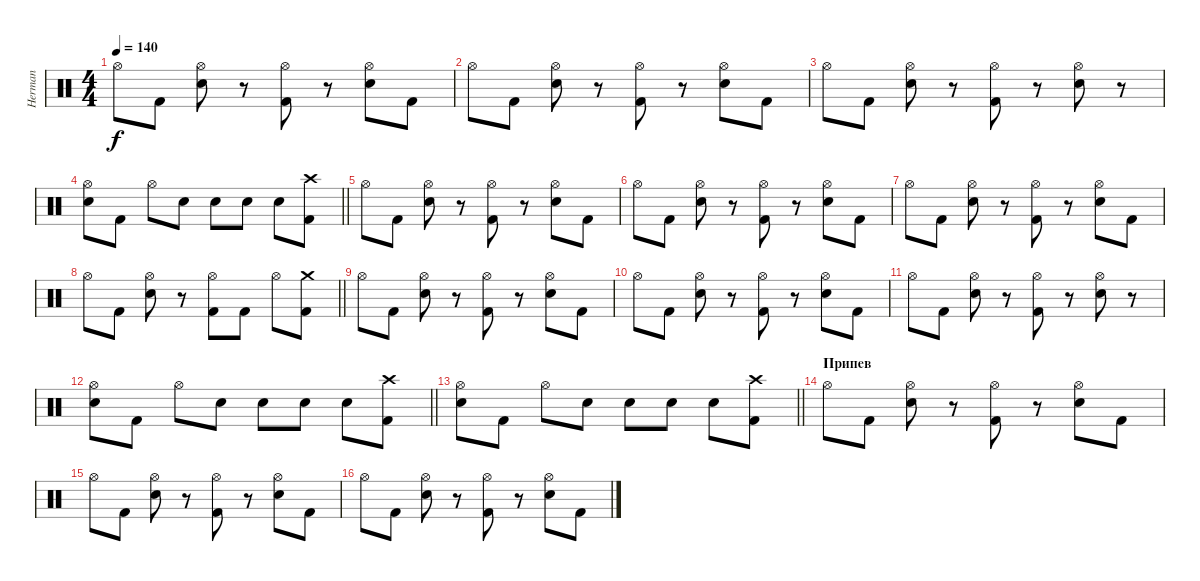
\track ("Herman" "Herman") {instrument percussion}
\staff {score}
\articulation defaults
\ts (4 4)
\tempo 140
\clef neutral
\ks c "Hi-Hat (open)".8{dy f} "Kick (hit) 2".8
("Hi-Hat (open)" "Electric Snare (hit)").8 r.8 ("Hi-Hat (open)" "Kick (hit) 2").8 r.8 ("Hi-Hat (open)" "Electric Snare (hit)").8 "Kick (hit) 2".8 |
"Hi-Hat (open)".8 "Kick (hit) 2".8 ("Hi-Hat (open)" "Electric Snare (hit)").8 r.8 ("Hi-Hat (open)" "Kick (hit) 2").8 r.8 ("Hi-Hat (open)" "Electric Snare (hit)").8 "Kick (hit) 2".8 |
"Hi-Hat (open)".8 "Kick (hit) 2".8 ("Hi-Hat (open)" "Electric Snare (hit)").8 r.8 ("Hi-Hat (open)" "Kick (hit) 2").8 r.8 ("Hi-Hat (open)" "Electric Snare (hit)").8 r.8 |
\barLineRight lightlight
("Hi-Hat (open)" "Electric Snare (hit)").8 "Kick (hit) 2".8 "Hi-Hat (open)".8 "Electric Snare (hit)".8 "Electric Snare (hit)".8 "Electric Snare (hit)".8 "Electric Snare (hit)".8 ("Crash high (hit)" "Kick (hit) 2").8 |
"Hi-Hat (open)".8 "Kick (hit) 2".8 ("Hi-Hat (open)" "Electric Snare (hit)").8 r.8 ("Hi-Hat (open)" "Kick (hit) 2").8 r.8 ("Hi-Hat (open)" "Electric Snare (hit)").8 "Kick (hit) 2".8 |
"Hi-Hat (open)".8 "Kick (hit) 2".8 ("Hi-Hat (open)" "Electric Snare (hit)").8 r.8 ("Hi-Hat (open)" "Kick (hit) 2").8 r.8 ("Hi-Hat (open)" "Electric Snare (hit)").8 "Kick (hit) 2".8 |
"Hi-Hat (open)".8 "Kick (hit) 2".8 ("Hi-Hat (open)" "Electric Snare (hit)").8 r.8 ("Hi-Hat (open)" "Kick (hit) 2").8 r.8 ("Hi-Hat (open)" "Electric Snare (hit)").8 "Kick (hit) 2".8 |
\barLineRight lightlight "Hi-Hat (open)".8 "Kick (hit) 2".8
("Hi-Hat (open)" "Electric Snare (hit)").8 r.8 ("Hi-Hat (open)" "Kick (hit) 2").8 "Kick (hit) 2".8 "Hi-Hat (open)".8 ("Crash medium (hit)" "Kick (hit) 2").8 |
"Hi-Hat (open)".8 "Kick (hit) 2".8 ("Hi-Hat (open)" "Electric Snare (hit)").8 r.8 ("Hi-Hat (open)" "Kick (hit) 2").8 r.8 ("Hi-Hat (open)" "Electric Snare (hit)").8 "Kick (hit) 2".8 |
"Hi-Hat (open)".8 "Kick (hit) 2".8 ("Hi-Hat (open)" "Electric Snare (hit)").8 r.8 ("Hi-Hat (open)" "Kick (hit) 2").8 r.8 ("Hi-Hat (open)" "Electric Snare (hit)").8 "Kick (hit) 2".8 |
"Hi-Hat (open)".8 "Kick (hit) 2".8 ("Hi-Hat (open)" "Electric Snare (hit)").8 r.8 ("Hi-Hat (open)" "Kick (hit) 2").8 r.8 ("Hi-Hat (open)" "Electric Snare (hit)").8 r.8 |
\barLineRight lightlight
("Hi-Hat (open)" "Electric Snare (hit)").8 "Kick (hit) 2".8 "Hi-Hat (open)".8 "Electric Snare (hit)".8 "Electric Snare (hit)".8 "Electric Snare (hit)".8 "Electric Snare (hit)".8 ("Crash high (hit)" "Kick (hit) 2").8 |
\barLineRight lightlight
("Hi-Hat (open)" "Electric Snare (hit)").8 "Kick (hit) 2".8 "Hi-Hat (open)".8 "Electric Snare (hit)".8 "Electric Snare (hit)".8 "Electric Snare (hit)".8 "Electric Snare (hit)".8 ("Crash high (hit)" "Kick (hit) 2").8 |
\section ("" "Припев")
"Hi-Hat (open)".8 "Kick (hit) 2".8 ("Hi-Hat (open)" "Electric Snare (hit)").8 r.8 ("Hi-Hat (open)" "Kick (hit) 2").8 r.8 ("Hi-Hat (open)" "Electric Snare (hit)").8 "Kick (hit) 2".8 |
"Hi-Hat (open)".8 "Kick (hit) 2".8 ("Hi-Hat (open)" "Electric Snare (hit)").8 r.8 ("Hi-Hat (open)" "Kick (hit) 2").8 r.8 ("Hi-Hat (open)" "Electric Snare (hit)").8 "Kick (hit) 2".8 |
"Hi-Hat (open)".8 "Kick (hit) 2".8 ("Hi-Hat (open)" "Electric Snare (hit)").8 r.8 ("Hi-Hat (open)" "Kick (hit) 2").8 r.8 ("Hi-Hat (open)" "Electric Snare (hit)").8 "Kick (hit) 2".8
